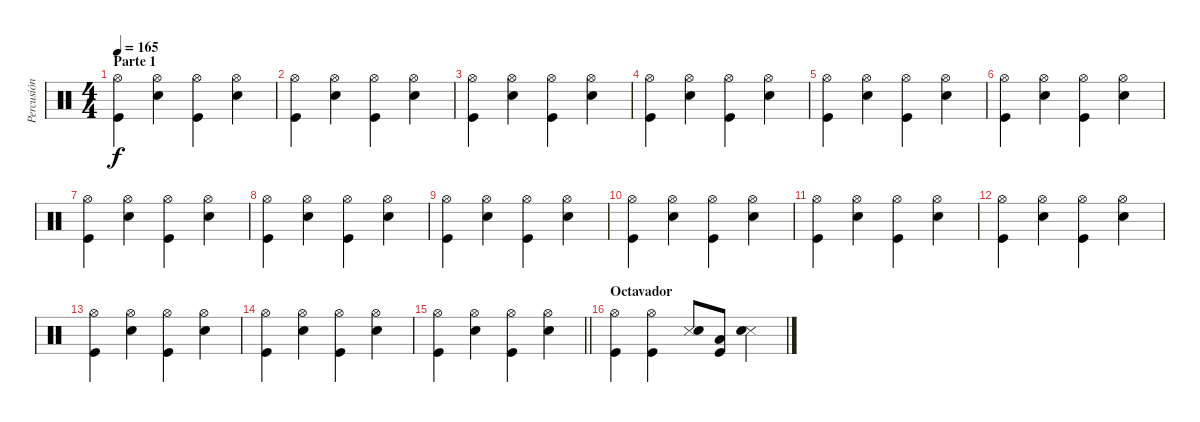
\track ("Percusión" "Percusión") {instrument percussion}
\staff {score}
\articulation defaults
\ts (4 4)
\section ("" "Parte 1")
\tempo 165
\clef neutral
\ks c
("Hi-Hat (open)" "Kick (hit)").4{dy f} ("Hi-Hat (open)" "Snare (hit) 2").4 ("Hi-Hat (open)" "Kick (hit)").4 ("Hi-Hat (open)" "Snare (hit) 2").4 |
("Hi-Hat (open)" "Kick (hit)").4 ("Hi-Hat (open)" "Snare (hit) 2").4 ("Hi-Hat (open)" "Kick (hit)").4 ("Hi-Hat (open)" "Snare (hit) 2").4 |
("Hi-Hat (open)" "Kick (hit)").4 ("Hi-Hat (open)" "Snare (hit) 2").4 ("Hi-Hat (open)" "Kick (hit)").4 ("Hi-Hat (open)" "Snare (hit) 2").4 |
("Hi-Hat (open)" "Kick (hit)").4 ("Hi-Hat (open)" "Snare (hit) 2").4 ("Hi-Hat (open)" "Kick (hit)").4 ("Hi-Hat (open)" "Snare (hit) 2").4 |
("Hi-Hat (open)" "Kick (hit)").4 ("Hi-Hat (open)" "Snare (hit) 2").4 ("Hi-Hat (open)" "Kick (hit)").4 ("Hi-Hat (open)" "Snare (hit) 2").4 |
("Hi-Hat (open)" "Kick (hit)").4 ("Hi-Hat (open)" "Snare (hit) 2").4 ("Hi-Hat (open)" "Kick (hit)").4 ("Hi-Hat (open)" "Snare (hit) 2").4 |
("Hi-Hat (open)" "Kick (hit)").4 ("Hi-Hat (open)" "Snare (hit) 2").4 ("Hi-Hat (open)" "Kick (hit)").4 ("Hi-Hat (open)" "Snare (hit) 2").4 |
("Hi-Hat (open)" "Kick (hit)").4 ("Hi-Hat (open)" "Snare (hit) 2").4 ("Hi-Hat (open)" "Kick (hit)").4 ("Hi-Hat (open)" "Snare (hit) 2").4 |
("Hi-Hat (open)" "Kick (hit)").4 ("Hi-Hat (open)" "Snare (hit) 2").4 ("Hi-Hat (open)" "Kick (hit)").4 ("Hi-Hat (open)" "Snare (hit) 2").4 |
("Hi-Hat (open)" "Kick (hit)").4 ("Hi-Hat (open)" "Snare (hit) 2").4 ("Hi-Hat (open)" "Kick (hit)").4 ("Hi-Hat (open)" "Snare (hit) 2").4 |
("Hi-Hat (open)" "Kick (hit)").4 ("Hi-Hat (open)" "Snare (hit) 2").4 ("Hi-Hat (open)" "Kick (hit)").4 ("Hi-Hat (open)" "Snare (hit) 2").4 |
("Hi-Hat (open)" "Kick (hit)").4 ("Hi-Hat (open)" "Snare (hit) 2").4 ("Hi-Hat (open)" "Kick (hit)").4 ("Hi-Hat (open)" "Snare (hit) 2").4 |
("Hi-Hat (open)" "Kick (hit)").4 ("Hi-Hat (open)" "Snare (hit) 2").4 ("Hi-Hat (open)" "Kick (hit)").4 ("Hi-Hat (open)" "Snare (hit) 2").4 |
("Hi-Hat (open)" "Kick (hit)").4 ("Hi-Hat (open)" "Snare (hit) 2").4 ("Hi-Hat (open)" "Kick (hit)").4 ("Hi-Hat (open)" "Snare (hit) 2").4 |
\barLineRight lightlight
("Hi-Hat (open)" "Kick (hit)").4 ("Hi-Hat (open)" "Snare (hit) 2").4 ("Hi-Hat (open)" "Kick (hit)").4 ("Hi-Hat (open)" "Snare (hit) 2").4 |
\section ("" "Octavador")
("Hi-Hat (open)" "Kick (hit)").4 ("Hi-Hat (open)" "Kick (hit)").4 ("Snare (side stick) 3" "Snare (hit) 2").8 ("Low Floor Tom (hit)" "Kick (hit)").8 ("Snare (side stick) 3" "Snare (hit) 2").4
